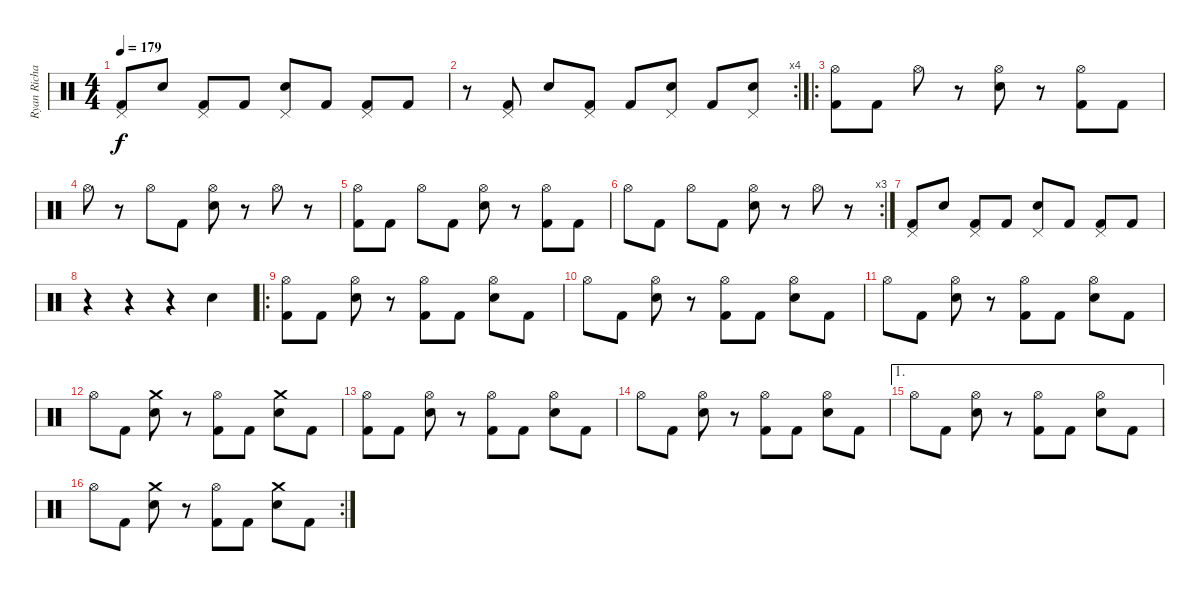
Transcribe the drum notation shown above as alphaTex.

\track ("Ryan Richards" "Ryan Richa") {instrument percussion}
\staff {score}
\articulation defaults
\ts (4 4)
\tempo 179
\clef neutral
\ks c
("Pedal Hi-Hat (hit)" "Kick (hit) 2").8{dy f} "Snare (hit) 2".8 ("Pedal Hi-Hat (hit)" "Kick (hit) 2").8 "Kick (hit) 2".8 ("Pedal Hi-Hat (hit)" "Snare (hit) 2").8 "Kick (hit) 2".8 ("Pedal Hi-Hat (hit)" "Kick (hit) 2").8 "Kick (hit) 2".8 |
\rc 4
r.8 ("Pedal Hi-Hat (hit)" "Kick (hit) 2").8 "Snare (hit) 2".8 ("Pedal Hi-Hat (hit)" "Kick (hit) 2").8 "Kick (hit) 2".8 ("Pedal Hi-Hat (hit)" "Snare (hit) 2").8 "Kick (hit) 2".8 ("Pedal Hi-Hat (hit)" "Snare (hit) 2").8 |
\ro
("Hi-Hat (open)" "Kick (hit) 2").8 "Kick (hit) 2".8 "Hi-Hat (open)".8 r.8 ("Hi-Hat (open)" "Snare (hit) 2").8 r.8 ("Hi-Hat (open)" "Kick (hit) 2").8 "Kick (hit) 2".8 |
"Hi-Hat (open)".8 r.8 "Hi-Hat (open)".8 "Kick (hit) 2".8 ("Hi-Hat (open)" "Snare (hit) 2").8 r.8 "Hi-Hat (open)".8 r.8 |
("Hi-Hat (open)" "Kick (hit) 2").8 "Kick (hit) 2".8 "Hi-Hat (open)".8 "Kick (hit) 2".8 ("Hi-Hat (open)" "Snare (hit) 2").8 r.8 ("Hi-Hat (open)" "Kick (hit) 2").8 "Kick (hit) 2".8 |
\rc 3 "Hi-Hat (open)".8 "Kick (hit) 2".8 "Hi-Hat (open)".8 "Kick (hit) 2".8
("Hi-Hat (open)" "Snare (hit) 2").8 r.8 "Hi-Hat (open)".8 r.8 |
("Pedal Hi-Hat (hit)" "Kick (hit) 2").8 "Snare (hit) 2".8 ("Pedal Hi-Hat (hit)" "Kick (hit) 2").8 "Kick (hit) 2".8 ("Pedal Hi-Hat (hit)" "Snare (hit) 2").8 "Kick (hit) 2".8 ("Pedal Hi-Hat (hit)" "Kick (hit) 2").8 "Kick (hit) 2".8 |
r.4 r.4 r.4 "Snare (hit) 2".4 |
\ro
("Hi-Hat (open)" "Kick (hit) 2").8 "Kick (hit) 2".8 ("Hi-Hat (open)" "Snare (hit) 2").8 r.8 ("Hi-Hat (open)" "Kick (hit) 2").8 "Kick (hit) 2".8 ("Hi-Hat (open)" "Snare (hit) 2").8 "Kick (hit) 2".8 |
"Hi-Hat (open)".8 "Kick (hit) 2".8 ("Hi-Hat (open)" "Snare (hit) 2").8 r.8 ("Hi-Hat (open)" "Kick (hit) 2").8 "Kick (hit) 2".8 ("Hi-Hat (open)" "Snare (hit) 2").8 "Kick (hit) 2".8 |
"Hi-Hat (open)".8 "Kick (hit) 2".8 ("Hi-Hat (open)" "Snare (hit) 2").8 r.8 ("Hi-Hat (open)" "Kick (hit) 2").8 "Kick (hit) 2".8 ("Hi-Hat (open)" "Snare (hit) 2").8 "Kick (hit) 2".8 |
"Hi-Hat (open)".8 "Kick (hit) 2".8 ("Crash medium (hit)" "Snare (hit) 2").8 r.8 ("Hi-Hat (open)" "Kick (hit) 2").8 "Kick (hit) 2".8 ("Crash medium (hit)" "Snare (hit) 2").8 "Kick (hit) 2".8 |
("Hi-Hat (open)" "Kick (hit) 2").8 "Kick (hit) 2".8 ("Hi-Hat (open)" "Snare (hit) 2").8 r.8 ("Hi-Hat (open)" "Kick (hit) 2").8 "Kick (hit) 2".8 ("Hi-Hat (open)" "Snare (hit) 2").8 "Kick (hit) 2".8 |
"Hi-Hat (open)".8 "Kick (hit) 2".8 ("Hi-Hat (open)" "Snare (hit) 2").8 r.8 ("Hi-Hat (open)" "Kick (hit) 2").8 "Kick (hit) 2".8 ("Hi-Hat (open)" "Snare (hit) 2").8 "Kick (hit) 2".8 |
\ae 1 "Hi-Hat (open)".8 "Kick (hit) 2".8
("Hi-Hat (open)" "Snare (hit) 2").8 r.8 ("Hi-Hat (open)" "Kick (hit) 2").8 "Kick (hit) 2".8 ("Hi-Hat (open)" "Snare (hit) 2").8 "Kick (hit) 2".8 |
\rc 2 "Hi-Hat (open)".8 "Kick (hit) 2".8
("Crash medium (hit)" "Snare (hit) 2").8 r.8 ("Hi-Hat (open)" "Kick (hit) 2").8 "Kick (hit) 2".8 ("Crash medium (hit)" "Snare (hit) 2").8 "Kick (hit) 2".8
